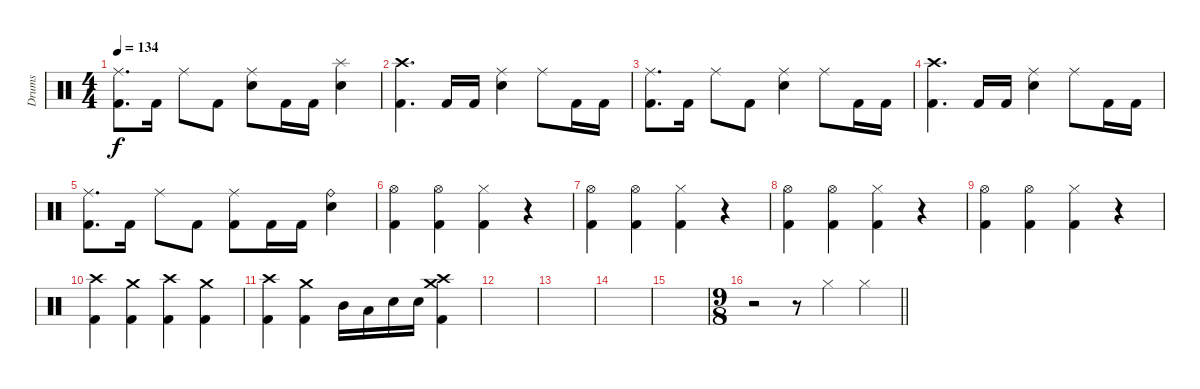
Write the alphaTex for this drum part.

\track ("Drums" "Drums") {instrument percussion}
\staff {score}
\articulation defaults
\ts (4 4)
\tempo 134
\clef neutral
\ks c
("Ride (middle)" "Kick (hit) 2").8{d dy f} "Kick (hit) 2".16 "Ride (middle)".8 "Kick (hit) 2".8 ("Ride (middle)" "Snare (hit) 2").8 "Kick (hit) 2".16 "Kick (hit) 2".16 ("Splash (hit)" "Snare (hit) 2").4 |
("Crash high (hit)" "Kick (hit) 2").4{d} "Kick (hit) 2".16 "Kick (hit) 2".16 ("Ride (middle)" "Snare (hit) 2").4 "Ride (middle)".8 "Kick (hit) 2".16 "Kick (hit) 2".16 |
("Ride (middle)" "Kick (hit) 2").8{d} "Kick (hit) 2".16 "Ride (middle)".8 "Kick (hit) 2".8 ("Ride (middle)" "Snare (hit) 2").4 "Ride (middle)".8 "Kick (hit) 2".16 "Kick (hit) 2".16 |
("Crash high (hit)" "Kick (hit) 2").4{d} "Kick (hit) 2".16 "Kick (hit) 2".16 ("Ride (middle)" "Snare (hit) 2").4 "Ride (middle)".8 "Kick (hit) 2".16 "Kick (hit) 2".16 |
("Ride (middle)" "Kick (hit) 2").8{d} "Kick (hit) 2".16 "Ride (middle)".8 "Kick (hit) 2".8 ("Ride (middle)" "Kick (hit) 2").8 "Kick (hit) 2".16 "Kick (hit) 2".16 ("Ride (bell)" "Snare (hit) 2").4 |
("Hi-Hat (open)" "Kick (hit) 2").4 ("Hi-Hat (open)" "Kick (hit) 2").4 ("Hi-Hat (closed)" "Kick (hit) 2").4 r.4 |
("Hi-Hat (open)" "Kick (hit) 2").4 ("Hi-Hat (open)" "Kick (hit) 2").4 ("Hi-Hat (closed)" "Kick (hit) 2").4 r.4 |
("Hi-Hat (open)" "Kick (hit) 2").4 ("Hi-Hat (open)" "Kick (hit) 2").4 ("Hi-Hat (closed)" "Kick (hit) 2").4 r.4 |
("Hi-Hat (open)" "Kick (hit) 2").4 ("Hi-Hat (open)" "Kick (hit) 2").4 ("Hi-Hat (closed)" "Kick (hit) 2").4 r.4 |
("Crash high (hit)" "Kick (hit) 2").4 ("Crash medium (hit)" "Kick (hit) 2").4 ("Crash high (hit)" "Kick (hit) 2").4 ("Crash medium (hit)" "Kick (hit) 2").4 |
("Crash high (hit)" "Kick (hit) 2").4 ("Crash medium (hit)" "Kick (hit) 2").4 "Mid Tom (hit)".16 "Low Tom (hit)".16 "Snare (hit) 2".16 "Snare (hit) 2".16 ("Crash medium (hit)" "Crash high (hit)" "Kick (hit) 2").4 |
|
|
|
|
\ts (9 8)
\barLineRight lightlight
r.2 r.8 "Hi-Hat (closed)".4 "Hi-Hat (closed)".4
